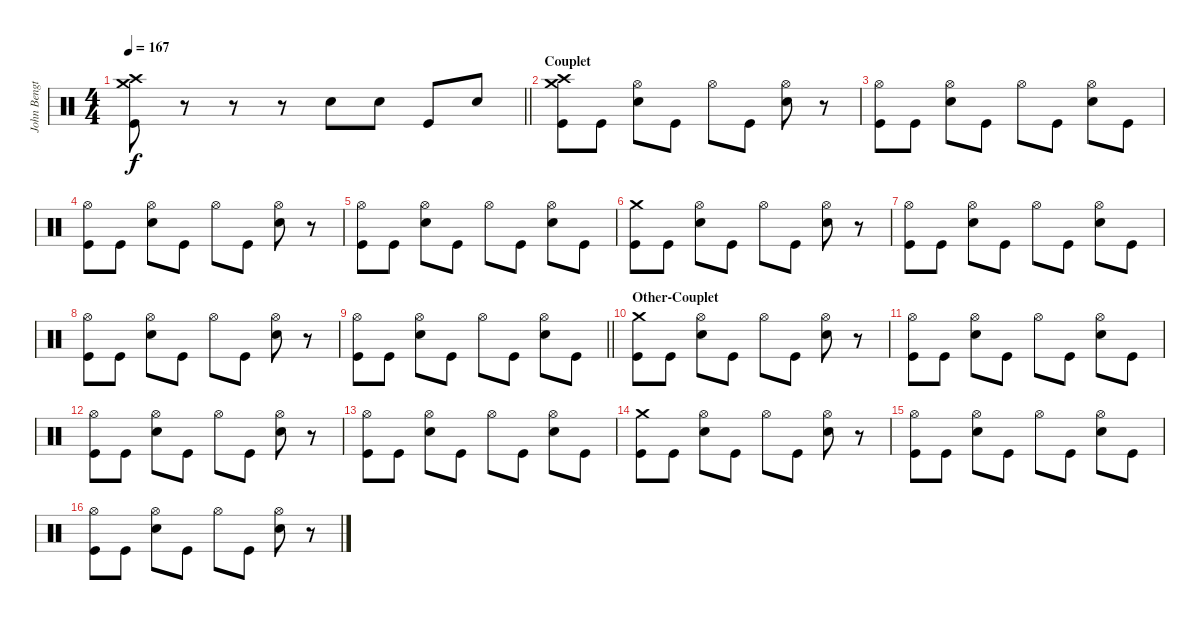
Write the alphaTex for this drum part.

\track ("John Bengtsson" "John Bengt") {instrument percussion}
\staff {score}
\articulation defaults
\ts (4 4)
\tempo 167
\clef neutral
\barLineRight lightlight
\ks c
("Crash medium (hit)" "Crash high (hit)" "Kick (hit)").8{dy f} r.8 r.8 r.8 "Snare (hit) 2".8 "Snare (hit) 2".8 "Kick (hit)".8 "Snare (hit) 2".8 |
\section ("" "Couplet")
("Crash medium (hit)" "Crash high (hit)" "Kick (hit)").8 "Kick (hit)".8 ("Hi-Hat (open)" "Snare (hit) 2").8 "Kick (hit)".8 "Hi-Hat (open)".8 "Kick (hit)".8 ("Hi-Hat (open)" "Snare (hit) 2").8 r.8 |
("Hi-Hat (open)" "Kick (hit)").8 "Kick (hit)".8 ("Hi-Hat (open)" "Snare (hit) 2").8 "Kick (hit)".8 "Hi-Hat (open)".8 "Kick (hit)".8 ("Hi-Hat (open)" "Snare (hit) 2").8 "Kick (hit)".8 |
("Hi-Hat (open)" "Kick (hit)").8 "Kick (hit)".8 ("Hi-Hat (open)" "Snare (hit) 2").8 "Kick (hit)".8 "Hi-Hat (open)".8 "Kick (hit)".8 ("Hi-Hat (open)" "Snare (hit) 2").8 r.8 |
("Hi-Hat (open)" "Kick (hit)").8 "Kick (hit)".8 ("Hi-Hat (open)" "Snare (hit) 2").8 "Kick (hit)".8 "Hi-Hat (open)".8 "Kick (hit)".8 ("Hi-Hat (open)" "Snare (hit) 2").8 "Kick (hit)".8 |
("Crash medium (hit)" "Kick (hit)").8 "Kick (hit)".8 ("Hi-Hat (open)" "Snare (hit) 2").8 "Kick (hit)".8 "Hi-Hat (open)".8 "Kick (hit)".8 ("Hi-Hat (open)" "Snare (hit) 2").8 r.8 |
("Hi-Hat (open)" "Kick (hit)").8 "Kick (hit)".8 ("Hi-Hat (open)" "Snare (hit) 2").8 "Kick (hit)".8 "Hi-Hat (open)".8 "Kick (hit)".8 ("Hi-Hat (open)" "Snare (hit) 2").8 "Kick (hit)".8 |
("Hi-Hat (open)" "Kick (hit)").8 "Kick (hit)".8 ("Hi-Hat (open)" "Snare (hit) 2").8 "Kick (hit)".8 "Hi-Hat (open)".8 "Kick (hit)".8 ("Hi-Hat (open)" "Snare (hit) 2").8 r.8 |
\barLineRight lightlight
("Hi-Hat (open)" "Kick (hit)").8 "Kick (hit)".8 ("Hi-Hat (open)" "Snare (hit) 2").8 "Kick (hit)".8 "Hi-Hat (open)".8 "Kick (hit)".8 ("Hi-Hat (open)" "Snare (hit) 2").8 "Kick (hit)".8 |
\section ("" "Other-Couplet")
("Crash medium (hit)" "Kick (hit)").8 "Kick (hit)".8 ("Hi-Hat (open)" "Snare (hit) 2").8 "Kick (hit)".8 "Hi-Hat (open)".8 "Kick (hit)".8 ("Hi-Hat (open)" "Snare (hit) 2").8 r.8 |
("Hi-Hat (open)" "Kick (hit)").8 "Kick (hit)".8 ("Hi-Hat (open)" "Snare (hit) 2").8 "Kick (hit)".8 "Hi-Hat (open)".8 "Kick (hit)".8 ("Hi-Hat (open)" "Snare (hit) 2").8 "Kick (hit)".8 |
("Hi-Hat (open)" "Kick (hit)").8 "Kick (hit)".8 ("Hi-Hat (open)" "Snare (hit) 2").8 "Kick (hit)".8 "Hi-Hat (open)".8 "Kick (hit)".8 ("Hi-Hat (open)" "Snare (hit) 2").8 r.8 |
("Hi-Hat (open)" "Kick (hit)").8 "Kick (hit)".8 ("Hi-Hat (open)" "Snare (hit) 2").8 "Kick (hit)".8 "Hi-Hat (open)".8 "Kick (hit)".8 ("Hi-Hat (open)" "Snare (hit) 2").8 "Kick (hit)".8 |
("Crash medium (hit)" "Kick (hit)").8 "Kick (hit)".8 ("Hi-Hat (open)" "Snare (hit) 2").8 "Kick (hit)".8 "Hi-Hat (open)".8 "Kick (hit)".8 ("Hi-Hat (open)" "Snare (hit) 2").8 r.8 |
("Hi-Hat (open)" "Kick (hit)").8 "Kick (hit)".8 ("Hi-Hat (open)" "Snare (hit) 2").8 "Kick (hit)".8 "Hi-Hat (open)".8 "Kick (hit)".8 ("Hi-Hat (open)" "Snare (hit) 2").8 "Kick (hit)".8 |
("Hi-Hat (open)" "Kick (hit)").8 "Kick (hit)".8 ("Hi-Hat (open)" "Snare (hit) 2").8 "Kick (hit)".8 "Hi-Hat (open)".8 "Kick (hit)".8 ("Hi-Hat (open)" "Snare (hit) 2").8 r.8
